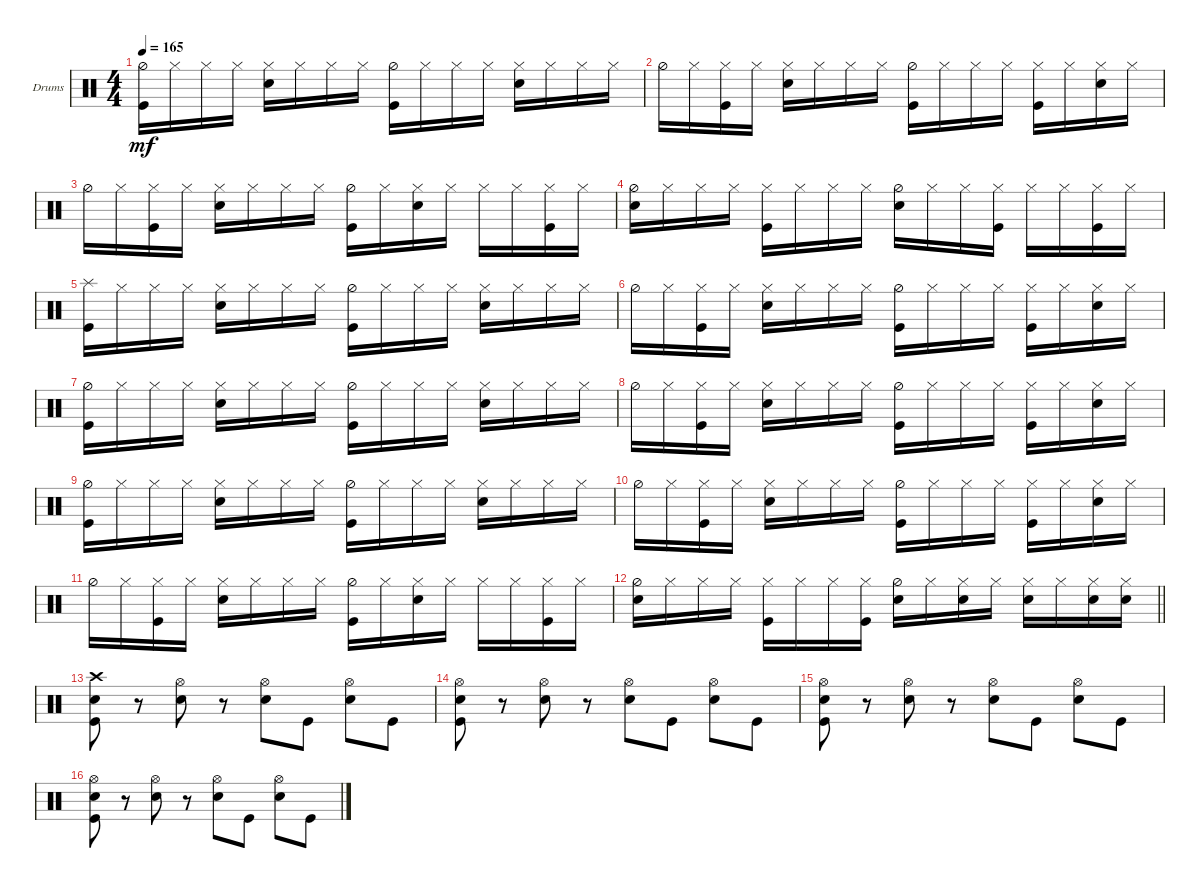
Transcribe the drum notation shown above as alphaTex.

\defaultSystemsLayout 4
\bracketExtendMode groupsimilarinstruments
\firstSystemTrackNameOrientation horizontal
\otherSystemsTrackNameOrientation horizontal
\track ("Drumkit" "Drums") {instrument percussion}
\staff {score}
\articulation defaults
\ts (4 4)
\tempo 165
\clef neutral
\ks c
("Kick (hit)" "Hi-Hat (half)").16{dy mf} "Hi-Hat (closed)".16 "Hi-Hat (closed)".16 "Hi-Hat (closed)".16 ("Hi-Hat (closed)" "Snare (hit) 2").16 "Hi-Hat (closed)".16 "Hi-Hat (closed)".16 "Hi-Hat (closed)".16 ("Hi-Hat (half)" "Kick (hit)").16 "Hi-Hat (closed)".16 "Hi-Hat (closed)".16 "Hi-Hat (closed)".16 ("Hi-Hat (closed)" "Snare (hit) 2").16 "Hi-Hat (closed)".16 "Hi-Hat (closed)".16 "Hi-Hat (closed)".16 |
"Hi-Hat (half)".16 "Hi-Hat (closed)".16 ("Hi-Hat (closed)" "Kick (hit)").16 "Hi-Hat (closed)".16 ("Hi-Hat (closed)" "Snare (hit) 2").16 "Hi-Hat (closed)".16 "Hi-Hat (closed)".16 "Hi-Hat (closed)".16 ("Hi-Hat (half)" "Kick (hit)").16 "Hi-Hat (closed)".16 "Hi-Hat (closed)".16 "Hi-Hat (closed)".16 ("Hi-Hat (closed)" "Kick (hit)").16 "Hi-Hat (closed)".16 ("Hi-Hat (closed)" "Snare (hit) 2").16 "Hi-Hat (closed)".16 |
"Hi-Hat (half)".16 "Hi-Hat (closed)".16 ("Hi-Hat (closed)" "Kick (hit)").16 "Hi-Hat (closed)".16 ("Hi-Hat (closed)" "Snare (hit) 2").16 "Hi-Hat (closed)".16 "Hi-Hat (closed)".16 "Hi-Hat (closed)".16 ("Hi-Hat (half)" "Kick (hit)").16 "Hi-Hat (closed)".16 ("Hi-Hat (closed)" "Snare (hit) 2").16 "Hi-Hat (closed)".16 "Hi-Hat (closed)".16 "Hi-Hat (closed)".16 ("Hi-Hat (closed)" "Kick (hit)").16 "Hi-Hat (closed)".16 |
("Hi-Hat (half)" "Snare (hit) 2").16 "Hi-Hat (closed)".16 "Hi-Hat (closed)".16 "Hi-Hat (closed)".16 ("Hi-Hat (closed)" "Kick (hit)").16 "Hi-Hat (closed)".16 "Hi-Hat (closed)".16 "Hi-Hat (closed)".16 ("Hi-Hat (half)" "Snare (hit) 2").16 "Hi-Hat (closed)".16 "Hi-Hat (closed)".16 ("Hi-Hat (closed)" "Kick (hit)").16 "Hi-Hat (closed)".16 "Hi-Hat (closed)".16 ("Hi-Hat (closed)" "Kick (hit)").16 "Hi-Hat (closed)".16 |
("Kick (hit)" "Splash (hit)").16 "Hi-Hat (closed)".16 "Hi-Hat (closed)".16 "Hi-Hat (closed)".16 ("Hi-Hat (closed)" "Snare (hit) 2").16 "Hi-Hat (closed)".16 "Hi-Hat (closed)".16 "Hi-Hat (closed)".16 ("Hi-Hat (half)" "Kick (hit)").16 "Hi-Hat (closed)".16 "Hi-Hat (closed)".16 "Hi-Hat (closed)".16 ("Hi-Hat (closed)" "Snare (hit) 2").16 "Hi-Hat (closed)".16 "Hi-Hat (closed)".16 "Hi-Hat (closed)".16 |
"Hi-Hat (half)".16 "Hi-Hat (closed)".16 ("Hi-Hat (closed)" "Kick (hit)").16 "Hi-Hat (closed)".16 ("Hi-Hat (closed)" "Snare (hit) 2").16 "Hi-Hat (closed)".16 "Hi-Hat (closed)".16 "Hi-Hat (closed)".16 ("Hi-Hat (half)" "Kick (hit)").16 "Hi-Hat (closed)".16 "Hi-Hat (closed)".16 "Hi-Hat (closed)".16 ("Hi-Hat (closed)" "Kick (hit)").16 "Hi-Hat (closed)".16 ("Hi-Hat (closed)" "Snare (hit) 2").16 "Hi-Hat (closed)".16 |
("Kick (hit)" "Hi-Hat (half)").16 "Hi-Hat (closed)".16 "Hi-Hat (closed)".16 "Hi-Hat (closed)".16 ("Hi-Hat (closed)" "Snare (hit) 2").16 "Hi-Hat (closed)".16 "Hi-Hat (closed)".16 "Hi-Hat (closed)".16 ("Hi-Hat (half)" "Kick (hit)").16 "Hi-Hat (closed)".16 "Hi-Hat (closed)".16 "Hi-Hat (closed)".16 ("Hi-Hat (closed)" "Snare (hit) 2").16 "Hi-Hat (closed)".16 "Hi-Hat (closed)".16 "Hi-Hat (closed)".16 |
"Hi-Hat (half)".16 "Hi-Hat (closed)".16 ("Hi-Hat (closed)" "Kick (hit)").16 "Hi-Hat (closed)".16 ("Hi-Hat (closed)" "Snare (hit) 2").16 "Hi-Hat (closed)".16 "Hi-Hat (closed)".16 "Hi-Hat (closed)".16 ("Hi-Hat (half)" "Kick (hit)").16 "Hi-Hat (closed)".16 "Hi-Hat (closed)".16 "Hi-Hat (closed)".16 ("Hi-Hat (closed)" "Kick (hit)").16 "Hi-Hat (closed)".16 ("Hi-Hat (closed)" "Snare (hit) 2").16 "Hi-Hat (closed)".16 |
("Kick (hit)" "Hi-Hat (half)").16 "Hi-Hat (closed)".16 "Hi-Hat (closed)".16 "Hi-Hat (closed)".16 ("Hi-Hat (closed)" "Snare (hit) 2").16 "Hi-Hat (closed)".16 "Hi-Hat (closed)".16 "Hi-Hat (closed)".16 ("Hi-Hat (half)" "Kick (hit)").16 "Hi-Hat (closed)".16 "Hi-Hat (closed)".16 "Hi-Hat (closed)".16 ("Hi-Hat (closed)" "Snare (hit) 2").16 "Hi-Hat (closed)".16 "Hi-Hat (closed)".16 "Hi-Hat (closed)".16 |
"Hi-Hat (half)".16 "Hi-Hat (closed)".16 ("Hi-Hat (closed)" "Kick (hit)").16 "Hi-Hat (closed)".16 ("Hi-Hat (closed)" "Snare (hit) 2").16 "Hi-Hat (closed)".16 "Hi-Hat (closed)".16 "Hi-Hat (closed)".16 ("Hi-Hat (half)" "Kick (hit)").16 "Hi-Hat (closed)".16 "Hi-Hat (closed)".16 "Hi-Hat (closed)".16 ("Hi-Hat (closed)" "Kick (hit)").16 "Hi-Hat (closed)".16 ("Hi-Hat (closed)" "Snare (hit) 2").16 "Hi-Hat (closed)".16 |
"Hi-Hat (half)".16 "Hi-Hat (closed)".16 ("Hi-Hat (closed)" "Kick (hit)").16 "Hi-Hat (closed)".16 ("Hi-Hat (closed)" "Snare (hit) 2").16 "Hi-Hat (closed)".16 "Hi-Hat (closed)".16 "Hi-Hat (closed)".16 ("Hi-Hat (half)" "Kick (hit)").16 "Hi-Hat (closed)".16 ("Hi-Hat (closed)" "Snare (hit) 2").16 "Hi-Hat (closed)".16 "Hi-Hat (closed)".16 "Hi-Hat (closed)".16 ("Hi-Hat (closed)" "Kick (hit)").16 "Hi-Hat (closed)".16 |
\barLineRight lightlight
("Hi-Hat (half)" "Snare (hit) 2").16 "Hi-Hat (closed)".16 "Hi-Hat (closed)".16 "Hi-Hat (closed)".16 ("Hi-Hat (closed)" "Kick (hit)").16 "Hi-Hat (closed)".16 "Hi-Hat (closed)".16 ("Hi-Hat (closed)" "Kick (hit)").16 ("Hi-Hat (half)" "Snare (hit) 2").16 "Hi-Hat (closed)".16 ("Hi-Hat (closed)" "Snare (hit) 2").16 "Hi-Hat (closed)".16 ("Hi-Hat (closed)" "Snare (hit) 2").16 "Hi-Hat (closed)".16 ("Hi-Hat (closed)" "Snare (hit) 2").16 ("Hi-Hat (closed)" "Snare (hit) 2").16 |
("Kick (hit)" "Snare (hit) 2" "Crash high (hit)").8 r.8 ("Snare (hit) 2" "Hi-Hat (open)").8 r.8 ("Snare (hit) 2" "Hi-Hat (open)").8 "Kick (hit)".8 ("Snare (hit) 2" "Hi-Hat (open)").8 "Kick (hit)".8 |
("Kick (hit)" "Snare (hit) 2" "Hi-Hat (open)").8 r.8 ("Snare (hit) 2" "Hi-Hat (open)").8 r.8 ("Snare (hit) 2" "Hi-Hat (open)").8 "Kick (hit)".8 ("Snare (hit) 2" "Hi-Hat (open)").8 "Kick (hit)".8 |
("Kick (hit)" "Snare (hit) 2" "Hi-Hat (open)").8 r.8 ("Snare (hit) 2" "Hi-Hat (open)").8 r.8 ("Snare (hit) 2" "Hi-Hat (open)").8 "Kick (hit)".8 ("Snare (hit) 2" "Hi-Hat (open)").8 "Kick (hit)".8 |
("Kick (hit)" "Snare (hit) 2" "Hi-Hat (open)").8 r.8 ("Snare (hit) 2" "Hi-Hat (open)").8 r.8 ("Snare (hit) 2" "Hi-Hat (open)").8 "Kick (hit)".8 ("Snare (hit) 2" "Hi-Hat (open)").8 "Kick (hit)".8
